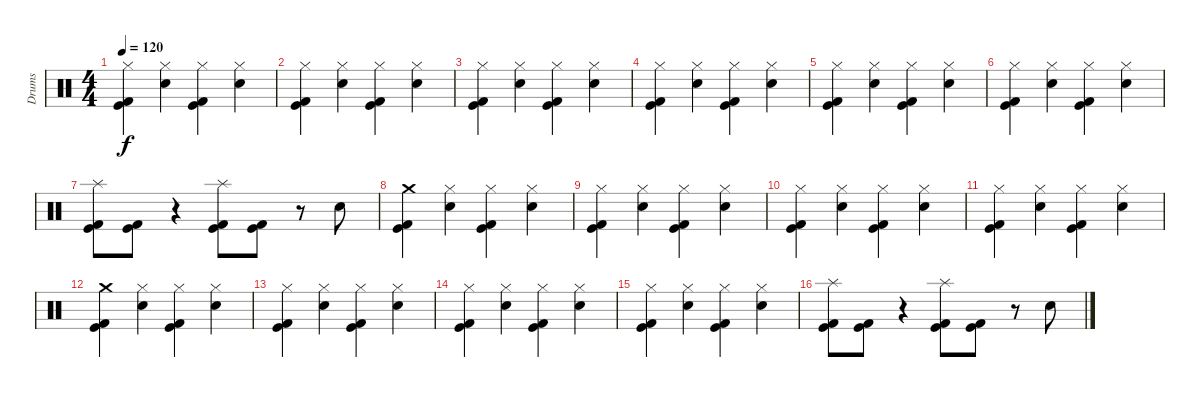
\track ("Drums" "Drums") {instrument percussion}
\staff {score}
\articulation defaults
\ts (4 4)
\tempo 120
\clef neutral
\ks c
("Kick (hit)" "Kick (hit) 2" "Hi-Hat (closed)").4{dy f} ("Snare (hit) 2" "Hi-Hat (closed)").4 ("Kick (hit)" "Kick (hit) 2" "Hi-Hat (closed)").4 ("Snare (hit) 2" "Hi-Hat (closed)").4 |
("Kick (hit)" "Kick (hit) 2" "Hi-Hat (closed)").4 ("Snare (hit) 2" "Hi-Hat (closed)").4 ("Kick (hit)" "Kick (hit) 2" "Hi-Hat (closed)").4 ("Snare (hit) 2" "Hi-Hat (closed)").4 |
("Kick (hit)" "Kick (hit) 2" "Hi-Hat (closed)").4 ("Snare (hit) 2" "Hi-Hat (closed)").4 ("Kick (hit)" "Kick (hit) 2" "Hi-Hat (closed)").4 ("Snare (hit) 2" "Hi-Hat (closed)").4 |
("Kick (hit)" "Kick (hit) 2" "Hi-Hat (closed)").4 ("Snare (hit) 2" "Hi-Hat (closed)").4 ("Kick (hit)" "Kick (hit) 2" "Hi-Hat (closed)").4 ("Snare (hit) 2" "Hi-Hat (closed)").4 |
("Kick (hit)" "Kick (hit) 2" "Hi-Hat (closed)").4 ("Snare (hit) 2" "Hi-Hat (closed)").4 ("Kick (hit)" "Kick (hit) 2" "Hi-Hat (closed)").4 ("Snare (hit) 2" "Hi-Hat (closed)").4 |
("Kick (hit)" "Kick (hit) 2" "Hi-Hat (closed)").4 ("Snare (hit) 2" "Hi-Hat (closed)").4 ("Kick (hit)" "Kick (hit) 2" "Hi-Hat (closed)").4 ("Snare (hit) 2" "Hi-Hat (closed)").4 |
("Kick (hit)" "Kick (hit) 2" "Splash (hit)").8 ("Kick (hit)" "Kick (hit) 2").8 r.4 ("Kick (hit)" "Kick (hit) 2" "Splash (hit)").8 ("Kick (hit)" "Kick (hit) 2").8 r.8 "Snare (hit) 2".8 |
("Kick (hit)" "Kick (hit) 2" "Crash medium (hit)").4 ("Snare (hit) 2" "Hi-Hat (closed)").4 ("Kick (hit)" "Kick (hit) 2" "Hi-Hat (closed)").4 ("Snare (hit) 2" "Hi-Hat (closed)").4 |
("Kick (hit)" "Kick (hit) 2" "Hi-Hat (closed)").4 ("Snare (hit) 2" "Hi-Hat (closed)").4 ("Kick (hit)" "Kick (hit) 2" "Hi-Hat (closed)").4 ("Snare (hit) 2" "Hi-Hat (closed)").4 |
("Kick (hit)" "Kick (hit) 2" "Hi-Hat (closed)").4 ("Snare (hit) 2" "Hi-Hat (closed)").4 ("Kick (hit)" "Kick (hit) 2" "Hi-Hat (closed)").4 ("Snare (hit) 2" "Hi-Hat (closed)").4 |
("Kick (hit)" "Kick (hit) 2" "Hi-Hat (closed)").4 ("Snare (hit) 2" "Hi-Hat (closed)").4 ("Kick (hit)" "Kick (hit) 2" "Hi-Hat (closed)").4 ("Snare (hit) 2" "Hi-Hat (closed)").4 |
("Kick (hit)" "Kick (hit) 2" "Crash medium (hit)").4 ("Snare (hit) 2" "Hi-Hat (closed)").4 ("Kick (hit)" "Kick (hit) 2" "Hi-Hat (closed)").4 ("Snare (hit) 2" "Hi-Hat (closed)").4 |
("Kick (hit)" "Kick (hit) 2" "Hi-Hat (closed)").4 ("Snare (hit) 2" "Hi-Hat (closed)").4 ("Kick (hit)" "Kick (hit) 2" "Hi-Hat (closed)").4 ("Snare (hit) 2" "Hi-Hat (closed)").4 |
("Kick (hit)" "Kick (hit) 2" "Hi-Hat (closed)").4 ("Snare (hit) 2" "Hi-Hat (closed)").4 ("Kick (hit)" "Kick (hit) 2" "Hi-Hat (closed)").4 ("Snare (hit) 2" "Hi-Hat (closed)").4 |
("Kick (hit)" "Kick (hit) 2" "Hi-Hat (closed)").4 ("Snare (hit) 2" "Hi-Hat (closed)").4 ("Kick (hit)" "Kick (hit) 2" "Hi-Hat (closed)").4 ("Snare (hit) 2" "Hi-Hat (closed)").4 |
("Kick (hit)" "Kick (hit) 2" "Splash (hit)").8 ("Kick (hit)" "Kick (hit) 2").8 r.4 ("Kick (hit)" "Kick (hit) 2" "Splash (hit)").8 ("Kick (hit)" "Kick (hit) 2").8 r.8 "Snare (hit) 2".8
